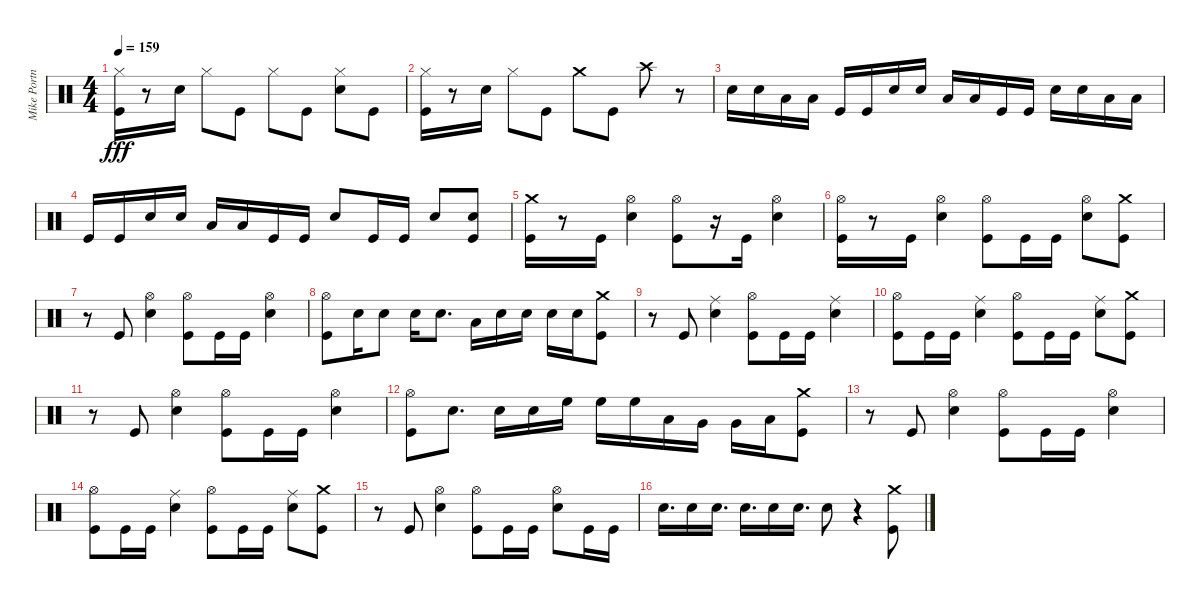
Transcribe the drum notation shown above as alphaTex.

\track ("Mike Portnoy" "Mike Portn") {instrument percussion}
\staff {score}
\articulation defaults
\ts (4 4)
\tempo 159
\clef neutral
\ks c
("Hi-Hat (closed)" "Kick (hit)").16{dy fff} r.8 "Electric Snare (hit)".16 "Hi-Hat (closed)".8 "Kick (hit)".8 "Hi-Hat (closed)".8 "Kick (hit)".8 ("Hi-Hat (closed)" "Electric Snare (hit)").8 "Kick (hit)".8 |
("Hi-Hat (closed)" "Kick (hit)").16 r.8 "Electric Snare (hit)".16 "Hi-Hat (closed)".8 "Kick (hit)".8 "Crash medium (hit)".8 "Kick (hit)".8 "Crash high (hit)".8 r.8 |
"Electric Snare (hit)".16 "Electric Snare (hit)".16 "Low Tom (hit)".16 "Low Tom (hit)".16 "Kick (hit)".16 "Kick (hit)".16 "Electric Snare (hit)".16 "Electric Snare (hit)".16 "Low Tom (hit)".16 "Low Tom (hit)".16 "Kick (hit)".16 "Kick (hit)".16 "Electric Snare (hit)".16 "Electric Snare (hit)".16 "Low Tom (hit)".16 "Low Tom (hit)".16 |
"Kick (hit)".16 "Kick (hit)".16 "Electric Snare (hit)".16 "Electric Snare (hit)".16 "Low Tom (hit)".16 "Low Tom (hit)".16 "Kick (hit)".16 "Kick (hit)".16 "Electric Snare (hit)".8 "Kick (hit)".16 "Kick (hit)".16 "Electric Snare (hit)".8 ("Kick (hit)" "Electric Snare (hit)").8 |
("Crash medium (hit)" "Kick (hit)").16 r.8 "Kick (hit)".16 ("Hi-Hat (open)" "Electric Snare (hit)").4 ("Hi-Hat (open)" "Kick (hit)").8 r.16 "Kick (hit)".16 ("Hi-Hat (open)" "Electric Snare (hit)").4 |
("Hi-Hat (open)" "Kick (hit)").16 r.8 "Kick (hit)".16 ("Hi-Hat (open)" "Electric Snare (hit)").4 ("Hi-Hat (open)" "Kick (hit)").8 "Kick (hit)".16 "Kick (hit)".16 ("Hi-Hat (open)" "Electric Snare (hit)").8 ("Crash medium (hit)" "Kick (hit)").8 |
r.8 "Kick (hit)".8 ("Hi-Hat (open)" "Electric Snare (hit)").4 ("Hi-Hat (open)" "Kick (hit)").8 "Kick (hit)".16 "Kick (hit)".16 ("Hi-Hat (open)" "Electric Snare (hit)").4 |
("Hi-Hat (open)" "Kick (hit)").8 "Electric Snare (hit)".16 "Electric Snare (hit)".8 "Electric Snare (hit)".16 "Electric Snare (hit)".8{d} "Low Tom (hit)".16 "Electric Snare (hit)".16 "Electric Snare (hit)".16 "Electric Snare (hit)".16 "Electric Snare (hit)".16 ("Crash medium (hit)" "Kick (hit)").8 |
r.8 "Kick (hit)".8 ("Ride (middle)" "Electric Snare (hit)").4 ("Hi-Hat (open)" "Kick (hit)").8 "Kick (hit)".16 "Kick (hit)".16 ("Ride (middle)" "Electric Snare (hit)").4 |
("Hi-Hat (open)" "Kick (hit)").8 "Kick (hit)".16 "Kick (hit)".16 ("Ride (middle)" "Electric Snare (hit)").4 ("Hi-Hat (open)" "Kick (hit)").8 "Kick (hit)".16 "Kick (hit)".16 ("Ride (middle)" "Electric Snare (hit)").8 ("Crash medium (hit)" "Kick (hit)").8 |
r.8 "Kick (hit)".8 ("Hi-Hat (open)" "Electric Snare (hit)").4 ("Hi-Hat (open)" "Kick (hit)").8 "Kick (hit)".16 "Kick (hit)".16 ("Hi-Hat (open)" "Electric Snare (hit)").4 |
("Hi-Hat (open)" "Kick (hit)").8 "Electric Snare (hit)".8{d} "Electric Snare (hit)".16 "Electric Snare (hit)".16 "High Floor Tom (hit)".16 "High Floor Tom (hit)".16 "High Floor Tom (hit)".16 "Low Tom (hit)".16 "Very Low Tom (hit)".16 "Very Low Tom (hit)".16 "Low Floor Tom (hit)".16 ("Crash medium (hit)" "Kick (hit)").8 |
r.8 "Kick (hit)".8 ("Hi-Hat (open)" "Electric Snare (hit)").4 ("Hi-Hat (open)" "Kick (hit)").8 "Kick (hit)".16 "Kick (hit)".16 ("Hi-Hat (open)" "Electric Snare (hit)").4 |
("Hi-Hat (open)" "Kick (hit)").8 "Kick (hit)".16 "Kick (hit)".16 ("Ride (middle)" "Electric Snare (hit)").4 ("Hi-Hat (open)" "Kick (hit)").8 "Kick (hit)".16 "Kick (hit)".16 ("Ride (middle)" "Electric Snare (hit)").8 ("Crash medium (hit)" "Kick (hit)").8 |
r.8 "Kick (hit)".8 ("Hi-Hat (open)" "Electric Snare (hit)").4 ("Hi-Hat (open)" "Kick (hit)").8 "Kick (hit)".16 "Kick (hit)".16 ("Hi-Hat (open)" "Electric Snare (hit)").8 "Kick (hit)".16 "Kick (hit)".16 |
"Electric Snare (hit)".16{d} "Electric Snare (hit)".16 "Electric Snare (hit)".16{d} "Electric Snare (hit)".16{d} "Electric Snare (hit)".16 "Electric Snare (hit)".16{d} "Electric Snare (hit)".8 r.4 ("Crash medium (hit)" "Kick (hit)").8
